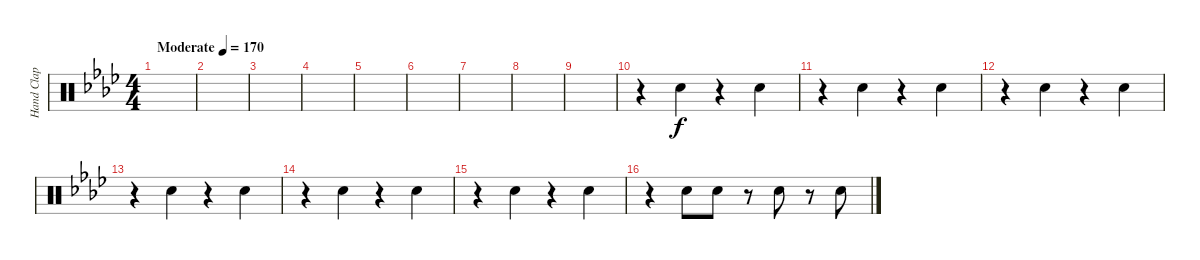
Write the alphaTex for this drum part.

\track ("Hand Clap" "Hand Clap") {instrument percussion}
\staff {score}
\articulation defaults
\ts (4 4)
\tempo (170 "Moderate")
\clef neutral
\ks ab
|
|
|
|
|
|
|
|
|
r.4 "Hand Clap (hit)".4 r.4 "Hand Clap (hit)".4 |
r.4 "Hand Clap (hit)".4 r.4 "Hand Clap (hit)".4 |
r.4 "Hand Clap (hit)".4 r.4 "Hand Clap (hit)".4 |
r.4 "Hand Clap (hit)".4 r.4 "Hand Clap (hit)".4 |
r.4 "Hand Clap (hit)".4 r.4 "Hand Clap (hit)".4 |
r.4 "Hand Clap (hit)".4 r.4 "Hand Clap (hit)".4 |
r.4 "Hand Clap (hit)".8 "Hand Clap (hit)".8 r.8 "Hand Clap (hit)".8 r.8 "Hand Clap (hit)".8
